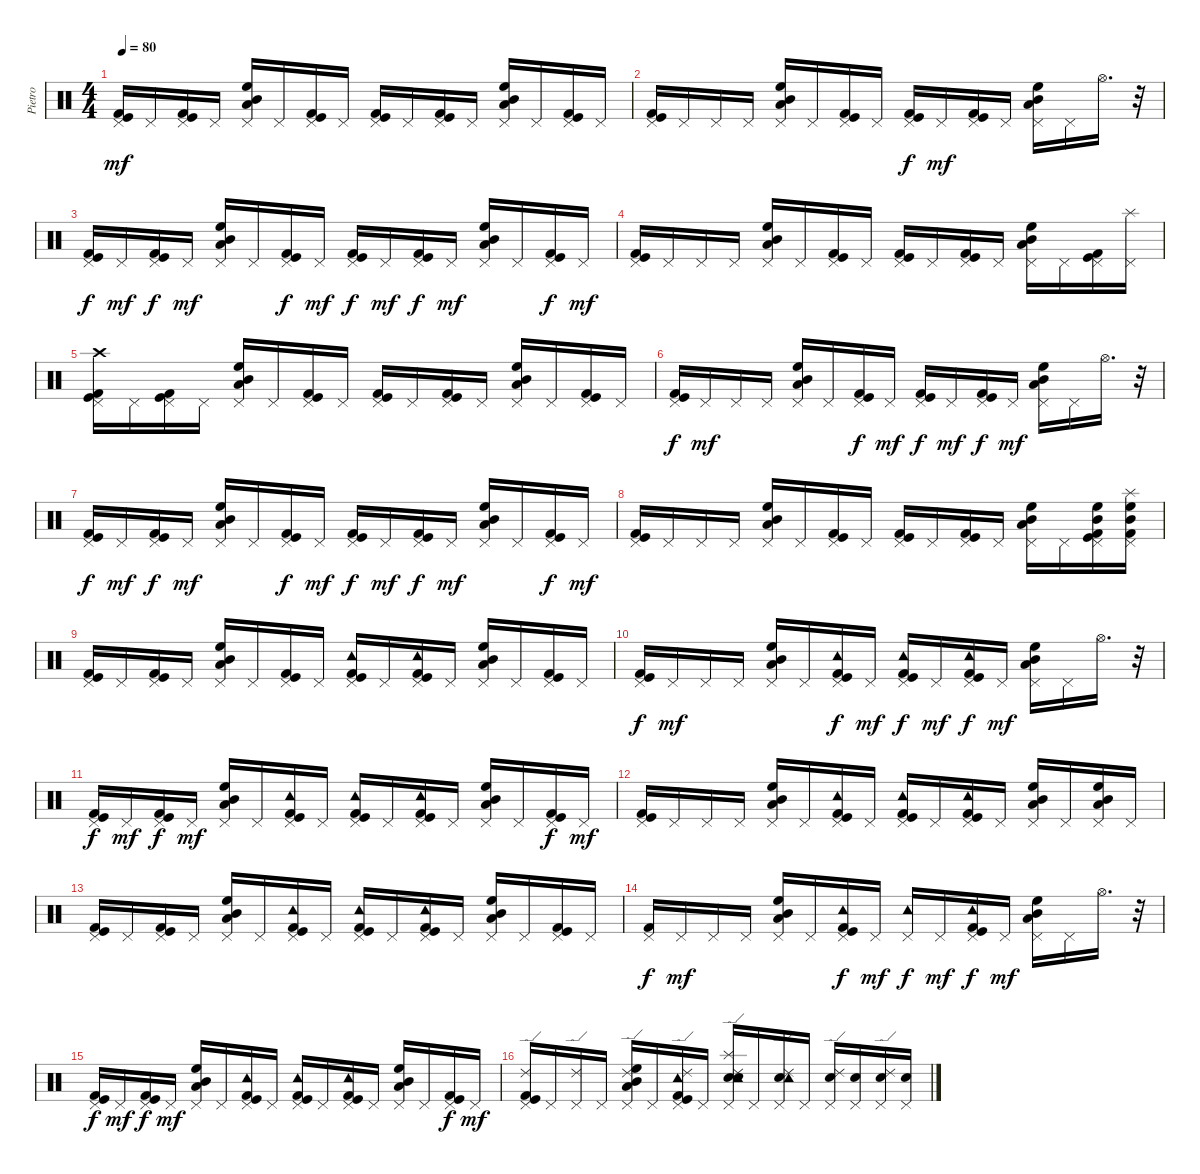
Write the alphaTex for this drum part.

\track ("Pietro" "Pietro") {instrument percussion}
\staff {score}
\articulation defaults
\ts (4 4)
\tempo 80
\clef neutral
\ks c
("Pedal Hi-Hat (hit)" "Kick (hit)" "Kick (hit) 2").16{dy mf} "Pedal Hi-Hat (hit)".16 ("Pedal Hi-Hat (hit)" "Kick (hit)" "Kick (hit) 2").16 "Pedal Hi-Hat (hit)".16 ("Pedal Hi-Hat (hit)" "High Floor Tom (hit)" "Mid Tom (hit)" "Low Tom (hit)").16 "Pedal Hi-Hat (hit)".16 ("Pedal Hi-Hat (hit)" "Kick (hit)" "Kick (hit) 2").16 "Pedal Hi-Hat (hit)".16 ("Pedal Hi-Hat (hit)" "Kick (hit)" "Kick (hit) 2").16 "Pedal Hi-Hat (hit)".16 ("Pedal Hi-Hat (hit)" "Kick (hit)" "Kick (hit) 2").16 "Pedal Hi-Hat (hit)".16 ("Pedal Hi-Hat (hit)" "High Floor Tom (hit)" "Mid Tom (hit)" "Low Tom (hit)").16 "Pedal Hi-Hat (hit)".16 ("Pedal Hi-Hat (hit)" "Kick (hit)" "Kick (hit) 2").16 "Pedal Hi-Hat (hit)".16 |
("Pedal Hi-Hat (hit)" "Kick (hit)" "Kick (hit) 2").16 "Pedal Hi-Hat (hit)".16 "Pedal Hi-Hat (hit)".16 "Pedal Hi-Hat (hit)".16 ("Pedal Hi-Hat (hit)" "High Floor Tom (hit)" "Mid Tom (hit)" "Low Tom (hit)").16 "Pedal Hi-Hat (hit)".16 ("Pedal Hi-Hat (hit)" "Kick (hit)" "Kick (hit) 2").16 "Pedal Hi-Hat (hit)".16 ("Pedal Hi-Hat (hit)" "Kick (hit)" "Kick (hit) 2").16{dy f} "Pedal Hi-Hat (hit)".16{dy mf} ("Pedal Hi-Hat (hit)" "Kick (hit)" "Kick (hit) 2").16 "Pedal Hi-Hat (hit)".16 ("Pedal Hi-Hat (hit)" "High Floor Tom (hit)" "Mid Tom (hit)" "Low Tom (hit)").16 "Pedal Hi-Hat (hit)".16 "Hi-Hat (open)".16{d} r.32 |
("Pedal Hi-Hat (hit)" "Kick (hit)" "Kick (hit) 2").16{dy f} "Pedal Hi-Hat (hit)".16{dy mf} ("Pedal Hi-Hat (hit)" "Kick (hit)" "Kick (hit) 2").16{dy f} "Pedal Hi-Hat (hit)".16{dy mf} ("Pedal Hi-Hat (hit)" "High Floor Tom (hit)" "Mid Tom (hit)" "Low Tom (hit)").16 "Pedal Hi-Hat (hit)".16 ("Pedal Hi-Hat (hit)" "Kick (hit)" "Kick (hit) 2").16{dy f} "Pedal Hi-Hat (hit)".16{dy mf} ("Pedal Hi-Hat (hit)" "Kick (hit)" "Kick (hit) 2").16{dy f} "Pedal Hi-Hat (hit)".16{dy mf} ("Pedal Hi-Hat (hit)" "Kick (hit)" "Kick (hit) 2").16{dy f} "Pedal Hi-Hat (hit)".16{dy mf} ("Pedal Hi-Hat (hit)" "High Floor Tom (hit)" "Mid Tom (hit)" "Low Tom (hit)").16 "Pedal Hi-Hat (hit)".16 ("Pedal Hi-Hat (hit)" "Kick (hit)" "Kick (hit) 2").16{dy f} "Pedal Hi-Hat (hit)".16{dy mf} |
("Pedal Hi-Hat (hit)" "Kick (hit)" "Kick (hit) 2").16 "Pedal Hi-Hat (hit)".16 "Pedal Hi-Hat (hit)".16 "Pedal Hi-Hat (hit)".16 ("Pedal Hi-Hat (hit)" "High Floor Tom (hit)" "Mid Tom (hit)" "Low Tom (hit)").16 "Pedal Hi-Hat (hit)".16 ("Pedal Hi-Hat (hit)" "Kick (hit)" "Kick (hit) 2").16 "Pedal Hi-Hat (hit)".16 ("Pedal Hi-Hat (hit)" "Kick (hit)" "Kick (hit) 2").16 "Pedal Hi-Hat (hit)".16 ("Pedal Hi-Hat (hit)" "Kick (hit)" "Kick (hit) 2").16 "Pedal Hi-Hat (hit)".16 ("Pedal Hi-Hat (hit)" "High Floor Tom (hit)" "Mid Tom (hit)" "Low Tom (hit)").16 "Pedal Hi-Hat (hit)".16 ("Pedal Hi-Hat (hit)" "Kick (hit)" "Kick (hit) 2").16 ("Pedal Hi-Hat (hit)" "Splash (hit)").16 |
("Pedal Hi-Hat (hit)" "Crash high (hit)" "Kick (hit)" "Kick (hit) 2").16 "Pedal Hi-Hat (hit)".16 ("Pedal Hi-Hat (hit)" "Kick (hit)" "Kick (hit) 2").16 "Pedal Hi-Hat (hit)".16 ("Pedal Hi-Hat (hit)" "High Floor Tom (hit)" "Mid Tom (hit)" "Low Tom (hit)").16 "Pedal Hi-Hat (hit)".16 ("Pedal Hi-Hat (hit)" "Kick (hit)" "Kick (hit) 2").16 "Pedal Hi-Hat (hit)".16 ("Pedal Hi-Hat (hit)" "Kick (hit)" "Kick (hit) 2").16 "Pedal Hi-Hat (hit)".16 ("Pedal Hi-Hat (hit)" "Kick (hit)" "Kick (hit) 2").16 "Pedal Hi-Hat (hit)".16 ("Pedal Hi-Hat (hit)" "High Floor Tom (hit)" "Mid Tom (hit)" "Low Tom (hit)").16 "Pedal Hi-Hat (hit)".16 ("Pedal Hi-Hat (hit)" "Kick (hit)" "Kick (hit) 2").16 "Pedal Hi-Hat (hit)".16 |
("Pedal Hi-Hat (hit)" "Kick (hit)" "Kick (hit) 2").16{dy f} "Pedal Hi-Hat (hit)".16{dy mf} "Pedal Hi-Hat (hit)".16 "Pedal Hi-Hat (hit)".16 ("Low Tom (hit)" "Mid Tom (hit)" "High Floor Tom (hit)" "Pedal Hi-Hat (hit)").16 "Pedal Hi-Hat (hit)".16 ("Pedal Hi-Hat (hit)" "Kick (hit)" "Kick (hit) 2").16{dy f} "Pedal Hi-Hat (hit)".16{dy mf} ("Pedal Hi-Hat (hit)" "Kick (hit)" "Kick (hit) 2").16{dy f} "Pedal Hi-Hat (hit)".16{dy mf} ("Pedal Hi-Hat (hit)" "Kick (hit)" "Kick (hit) 2").16{dy f} "Pedal Hi-Hat (hit)".16{dy mf} ("Pedal Hi-Hat (hit)" "High Floor Tom (hit)" "Mid Tom (hit)" "Low Tom (hit)").16 "Pedal Hi-Hat (hit)".16 "Hi-Hat (open)".16{d} r.32 |
("Pedal Hi-Hat (hit)" "Kick (hit)" "Kick (hit) 2").16{dy f} "Pedal Hi-Hat (hit)".16{dy mf} ("Pedal Hi-Hat (hit)" "Kick (hit)" "Kick (hit) 2").16{dy f} "Pedal Hi-Hat (hit)".16{dy mf} ("Pedal Hi-Hat (hit)" "Mid Tom (hit)" "High Floor Tom (hit)" "Low Tom (hit)").16 "Pedal Hi-Hat (hit)".16 ("Pedal Hi-Hat (hit)" "Kick (hit)" "Kick (hit) 2").16{dy f} "Pedal Hi-Hat (hit)".16{dy mf} ("Pedal Hi-Hat (hit)" "Kick (hit)" "Kick (hit) 2").16{dy f} "Pedal Hi-Hat (hit)".16{dy mf} ("Pedal Hi-Hat (hit)" "Kick (hit)" "Kick (hit) 2").16{dy f} "Pedal Hi-Hat (hit)".16{dy mf} ("Pedal Hi-Hat (hit)" "High Floor Tom (hit)" "Mid Tom (hit)" "Low Tom (hit)").16 "Pedal Hi-Hat (hit)".16 ("Pedal Hi-Hat (hit)" "Kick (hit)" "Kick (hit) 2").16{dy f} "Pedal Hi-Hat (hit)".16{dy mf} |
("Pedal Hi-Hat (hit)" "Kick (hit)" "Kick (hit) 2").16 "Pedal Hi-Hat (hit)".16 "Pedal Hi-Hat (hit)".16 "Pedal Hi-Hat (hit)".16 ("Pedal Hi-Hat (hit)" "High Floor Tom (hit)" "Mid Tom (hit)" "Low Tom (hit)").16 "Pedal Hi-Hat (hit)".16 ("Pedal Hi-Hat (hit)" "Kick (hit)" "Kick (hit) 2").16 "Pedal Hi-Hat (hit)".16 ("Pedal Hi-Hat (hit)" "Kick (hit)" "Kick (hit) 2").16 "Pedal Hi-Hat (hit)".16 ("Pedal Hi-Hat (hit)" "Kick (hit)" "Kick (hit) 2").16 "Pedal Hi-Hat (hit)".16 ("Pedal Hi-Hat (hit)" "High Floor Tom (hit)" "Mid Tom (hit)" "Low Tom (hit)").16 "Pedal Hi-Hat (hit)".16 ("Pedal Hi-Hat (hit)" "High Floor Tom (hit)" "Mid Tom (hit)" "Kick (hit)" "Kick (hit) 2").16 ("Pedal Hi-Hat (hit)" "High Floor Tom (hit)" "Mid Tom (hit)" "Splash (hit)" "Kick (hit) 2").16 |
("Pedal Hi-Hat (hit)" "Kick (hit)" "Kick (hit) 2").16 "Pedal Hi-Hat (hit)".16 ("Pedal Hi-Hat (hit)" "Kick (hit)" "Kick (hit) 2").16 "Pedal Hi-Hat (hit)".16 ("Pedal Hi-Hat (hit)" "High Floor Tom (hit)" "Mid Tom (hit)" "Low Tom (hit)").16 "Pedal Hi-Hat (hit)".16 ("Pedal Hi-Hat (hit)" "Kick (hit)" "Kick (hit) 2").16 "Pedal Hi-Hat (hit)".16 ("Pedal Hi-Hat (hit)" "Tambourine (hit)" "Kick (hit)" "Kick (hit) 2").16 "Pedal Hi-Hat (hit)".16 ("Pedal Hi-Hat (hit)" "Tambourine (hit)" "Kick (hit)" "Kick (hit) 2").16 "Pedal Hi-Hat (hit)".16 ("Pedal Hi-Hat (hit)" "Mid Tom (hit)" "High Floor Tom (hit)" "Low Tom (hit)").16 "Pedal Hi-Hat (hit)".16 ("Pedal Hi-Hat (hit)" "Kick (hit)" "Kick (hit) 2").16 "Pedal Hi-Hat (hit)".16 |
("Pedal Hi-Hat (hit)" "Kick (hit)" "Kick (hit) 2").16{dy f} "Pedal Hi-Hat (hit)".16{dy mf} "Pedal Hi-Hat (hit)".16 "Pedal Hi-Hat (hit)".16 ("Pedal Hi-Hat (hit)" "High Floor Tom (hit)" "Mid Tom (hit)" "Low Tom (hit)").16 "Pedal Hi-Hat (hit)".16 ("Pedal Hi-Hat (hit)" "Tambourine (hit)" "Kick (hit)" "Kick (hit) 2").16{dy f} "Pedal Hi-Hat (hit)".16{dy mf} ("Pedal Hi-Hat (hit)" "Tambourine (hit)" "Kick (hit)" "Kick (hit) 2").16{dy f} "Pedal Hi-Hat (hit)".16{dy mf} ("Pedal Hi-Hat (hit)" "Tambourine (hit)" "Kick (hit)" "Kick (hit) 2").16{dy f} "Pedal Hi-Hat (hit)".16{dy mf} ("Pedal Hi-Hat (hit)" "High Floor Tom (hit)" "Mid Tom (hit)" "Low Tom (hit)").16 "Pedal Hi-Hat (hit)".16 "Hi-Hat (open)".16{d} r.32 |
("Pedal Hi-Hat (hit)" "Kick (hit)" "Kick (hit) 2").16{dy f} "Pedal Hi-Hat (hit)".16{dy mf} ("Pedal Hi-Hat (hit)" "Kick (hit)" "Kick (hit) 2").16{dy f} "Pedal Hi-Hat (hit)".16{dy mf} ("Pedal Hi-Hat (hit)" "High Floor Tom (hit)" "Mid Tom (hit)" "Low Tom (hit)").16 "Pedal Hi-Hat (hit)".16 ("Pedal Hi-Hat (hit)" "Tambourine (hit)" "Kick (hit)" "Kick (hit) 2").16 "Pedal Hi-Hat (hit)".16 ("Pedal Hi-Hat (hit)" "Tambourine (hit)" "Kick (hit)" "Kick (hit) 2").16 "Pedal Hi-Hat (hit)".16 ("Pedal Hi-Hat (hit)" "Tambourine (hit)" "Kick (hit)" "Kick (hit) 2").16 "Pedal Hi-Hat (hit)".16 ("Pedal Hi-Hat (hit)" "High Floor Tom (hit)" "Mid Tom (hit)" "Low Tom (hit)").16 "Pedal Hi-Hat (hit)".16 ("Pedal Hi-Hat (hit)" "Kick (hit)" "Kick (hit) 2").16{dy f} "Pedal Hi-Hat (hit)".16{dy mf} |
("Pedal Hi-Hat (hit)" "Kick (hit)" "Kick (hit) 2").16 "Pedal Hi-Hat (hit)".16 "Pedal Hi-Hat (hit)".16 "Pedal Hi-Hat (hit)".16 ("Pedal Hi-Hat (hit)" "High Floor Tom (hit)" "Mid Tom (hit)" "Low Tom (hit)").16 "Pedal Hi-Hat (hit)".16 ("Pedal Hi-Hat (hit)" "Tambourine (hit)" "Kick (hit)" "Kick (hit) 2").16 "Pedal Hi-Hat (hit)".16 ("Pedal Hi-Hat (hit)" "Tambourine (hit)" "Kick (hit)" "Kick (hit) 2").16 "Pedal Hi-Hat (hit)".16 ("Pedal Hi-Hat (hit)" "Tambourine (hit)" "Kick (hit)" "Kick (hit) 2").16 "Pedal Hi-Hat (hit)".16 ("Pedal Hi-Hat (hit)" "High Floor Tom (hit)" "Mid Tom (hit)" "Low Tom (hit)").16 "Pedal Hi-Hat (hit)".16 ("Pedal Hi-Hat (hit)" "High Floor Tom (hit)" "Mid Tom (hit)" "Low Tom (hit)").16 "Pedal Hi-Hat (hit)".16 |
("Pedal Hi-Hat (hit)" "Kick (hit)" "Kick (hit) 2").16 "Pedal Hi-Hat (hit)".16 ("Pedal Hi-Hat (hit)" "Kick (hit)" "Kick (hit) 2").16 "Pedal Hi-Hat (hit)".16 ("Pedal Hi-Hat (hit)" "High Floor Tom (hit)" "Mid Tom (hit)" "Low Tom (hit)").16 "Pedal Hi-Hat (hit)".16 ("Pedal Hi-Hat (hit)" "Tambourine (hit)" "Kick (hit)" "Kick (hit) 2").16 "Pedal Hi-Hat (hit)".16 ("Pedal Hi-Hat (hit)" "Tambourine (hit)" "Kick (hit)" "Kick (hit) 2").16 "Pedal Hi-Hat (hit)".16 ("Pedal Hi-Hat (hit)" "Tambourine (hit)" "Kick (hit)" "Kick (hit) 2").16 "Pedal Hi-Hat (hit)".16 ("Pedal Hi-Hat (hit)" "High Floor Tom (hit)" "Mid Tom (hit)" "Low Tom (hit)").16 "Pedal Hi-Hat (hit)".16 ("Pedal Hi-Hat (hit)" "Kick (hit)" "Kick (hit) 2").16 "Pedal Hi-Hat (hit)".16 |
("Pedal Hi-Hat (hit)" "Kick (hit) 2").16{dy f} "Pedal Hi-Hat (hit)".16{dy mf} "Pedal Hi-Hat (hit)".16 "Pedal Hi-Hat (hit)".16 ("Pedal Hi-Hat (hit)" "High Floor Tom (hit)" "Mid Tom (hit)" "Low Tom (hit)").16 "Pedal Hi-Hat (hit)".16 ("Pedal Hi-Hat (hit)" "Tambourine (hit)" "Kick (hit)" "Kick (hit) 2").16{dy f} "Pedal Hi-Hat (hit)".16{dy mf} ("Pedal Hi-Hat (hit)" "Tambourine (hit)").16{dy f} "Pedal Hi-Hat (hit)".16{dy mf} ("Pedal Hi-Hat (hit)" "Tambourine (hit)" "Kick (hit)" "Kick (hit) 2").16{dy f} "Pedal Hi-Hat (hit)".16{dy mf} ("Pedal Hi-Hat (hit)" "High Floor Tom (hit)" "Mid Tom (hit)" "Low Tom (hit)").16 "Pedal Hi-Hat (hit)".16 "Hi-Hat (open)".16{d} r.32 |
("Pedal Hi-Hat (hit)" "Kick (hit)" "Kick (hit) 2").16{dy f} "Pedal Hi-Hat (hit)".16{dy mf} ("Pedal Hi-Hat (hit)" "Kick (hit)" "Kick (hit) 2").16{dy f} "Pedal Hi-Hat (hit)".16{dy mf} ("Pedal Hi-Hat (hit)" "High Floor Tom (hit)" "Mid Tom (hit)" "Low Tom (hit)").16 "Pedal Hi-Hat (hit)".16 ("Pedal Hi-Hat (hit)" "Tambourine (hit)" "Kick (hit)" "Kick (hit) 2").16 "Pedal Hi-Hat (hit)".16 ("Pedal Hi-Hat (hit)" "Tambourine (hit)" "Kick (hit)" "Kick (hit) 2").16 "Pedal Hi-Hat (hit)".16 ("Pedal Hi-Hat (hit)" "Tambourine (hit)" "Kick (hit)" "Kick (hit) 2").16 "Pedal Hi-Hat (hit)".16 ("Pedal Hi-Hat (hit)" "High Floor Tom (hit)" "Mid Tom (hit)" "Low Tom (hit)").16 "Pedal Hi-Hat (hit)".16 ("Pedal Hi-Hat (hit)" "Kick (hit)" "Kick (hit) 2").16{dy f} "Pedal Hi-Hat (hit)".16{dy mf} |
("Pedal Hi-Hat (hit)" "Ride (edge) 2" "Kick (hit)" "Kick (hit) 2").16 "Pedal Hi-Hat (hit)".16 ("Pedal Hi-Hat (hit)" "Ride (edge) 2").16 "Pedal Hi-Hat (hit)".16 ("Pedal Hi-Hat (hit)" "Ride (edge) 2" "High Floor Tom (hit)" "Mid Tom (hit)" "Low Tom (hit)").16 "Pedal Hi-Hat (hit)".16 ("Pedal Hi-Hat (hit)" "Ride (edge) 2" "Tambourine (hit)" "Kick (hit)" "Kick (hit) 2").16 "Pedal Hi-Hat (hit)".16 ("Pedal Hi-Hat (hit)" "Ride (edge) 2" "Snare (hit) 2" "Splash (hit)" "Tambourine (hit)" "Electric Snare (hit)").16 "Pedal Hi-Hat (hit)".16 ("Pedal Hi-Hat (hit)" "Ride (edge) 2" "Snare (hit) 2" "Tambourine (hit)").16 "Pedal Hi-Hat (hit)".16 ("Pedal Hi-Hat (hit)" "Ride (edge) 2" "Snare (hit) 2").16 ("Pedal Hi-Hat (hit)" "Snare (hit) 2").16 ("Pedal Hi-Hat (hit)" "Ride (edge) 2" "Snare (hit) 2").16 ("Pedal Hi-Hat (hit)" "Snare (hit) 2").16
